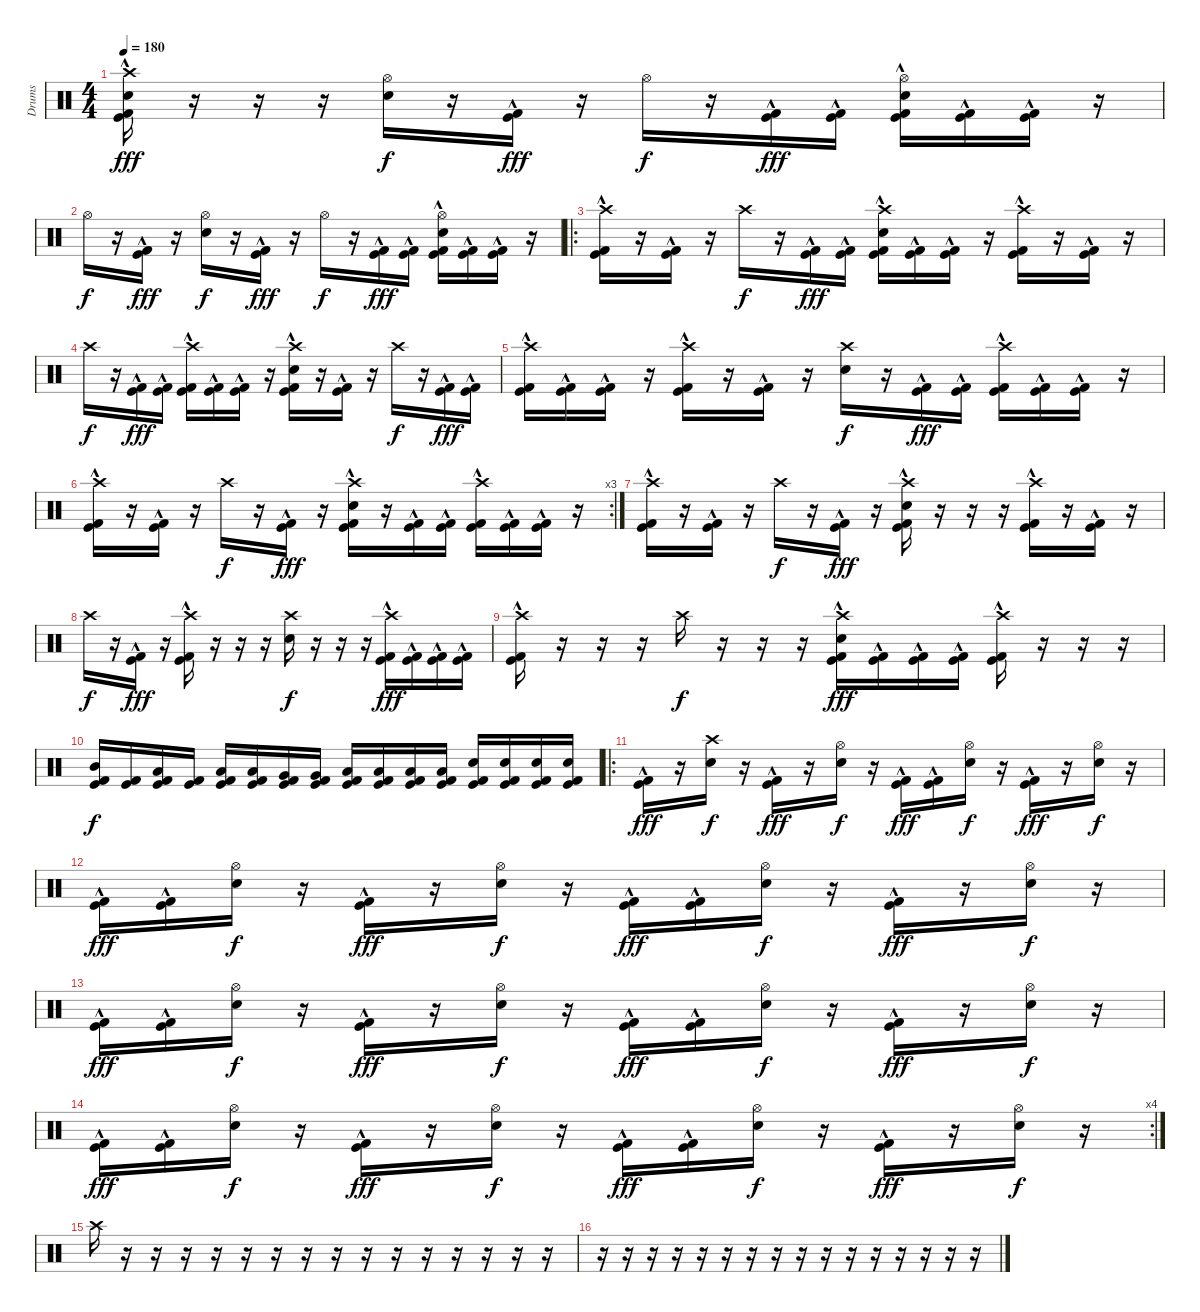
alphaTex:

\track ("Drums" "Drums") {instrument percussion}
\staff {score}
\articulation defaults
\ts (4 4)
\tempo 180
\clef neutral
\ks c
("Crash high (hit)" "Snare (hit) 2" "Kick (hit)"{hac} "Kick (hit) 2"{hac}).16{dy fff} r.16 r.16 r.16 ("Hi-Hat (open)" "Snare (hit) 2").16{dy f} r.16 ("Kick (hit)"{hac} "Kick (hit) 2"{hac}).16{dy fff} r.16 "Hi-Hat (open)".16{dy f} r.16 ("Kick (hit)"{hac} "Kick (hit) 2"{hac}).16{dy fff} ("Kick (hit)"{hac} "Kick (hit) 2"{hac}).16 ("Hi-Hat (open)" "Snare (hit) 2" "Kick (hit)"{hac} "Kick (hit) 2"{hac}).16 ("Kick (hit)"{hac} "Kick (hit) 2"{hac}).16 ("Kick (hit)"{hac} "Kick (hit) 2"{hac}).16 r.16 |
"Hi-Hat (open)".16{dy f} r.16 ("Kick (hit)"{hac} "Kick (hit) 2"{hac}).16{dy fff} r.16 ("Hi-Hat (open)" "Snare (hit) 2").16{dy f} r.16 ("Kick (hit)"{hac} "Kick (hit) 2"{hac}).16{dy fff} r.16 "Hi-Hat (open)".16{dy f} r.16 ("Kick (hit)"{hac} "Kick (hit) 2"{hac}).16{dy fff} ("Kick (hit)"{hac} "Kick (hit) 2"{hac}).16 ("Hi-Hat (open)" "Snare (hit) 2" "Kick (hit)"{hac} "Kick (hit) 2"{hac}).16 ("Kick (hit)"{hac} "Kick (hit) 2"{hac}).16 ("Kick (hit)"{hac} "Kick (hit) 2"{hac}).16 r.16 |
\ro
("Crash high (hit)" "Kick (hit)"{hac} "Kick (hit) 2"{hac}).16 r.16 ("Kick (hit)"{hac} "Kick (hit) 2"{hac}).16 r.16 "Crash high (hit)".16{dy f} r.16 ("Kick (hit)"{hac} "Kick (hit) 2"{hac}).16{dy fff} ("Kick (hit)"{hac} "Kick (hit) 2"{hac}).16 ("Crash high (hit)" "Snare (hit) 2" "Kick (hit)"{hac} "Kick (hit) 2"{hac}).16 ("Kick (hit)"{hac} "Kick (hit) 2"{hac}).16 ("Kick (hit)"{hac} "Kick (hit) 2"{hac}).16 r.16 ("Crash high (hit)" "Kick (hit)"{hac} "Kick (hit) 2"{hac}).16 r.16 ("Kick (hit)"{hac} "Kick (hit) 2"{hac}).16 r.16 |
"Crash high (hit)".16{dy f} r.16 ("Kick (hit)"{hac} "Kick (hit) 2"{hac}).16{dy fff} ("Kick (hit)"{hac} "Kick (hit) 2"{hac}).16 ("Crash high (hit)" "Kick (hit)"{hac} "Kick (hit) 2"{hac}).16 ("Kick (hit)"{hac} "Kick (hit) 2"{hac}).16 ("Kick (hit)"{hac} "Kick (hit) 2"{hac}).16 r.16 ("Crash high (hit)" "Snare (hit) 2" "Kick (hit)"{hac} "Kick (hit) 2"{hac}).16 r.16 ("Kick (hit)"{hac} "Kick (hit) 2"{hac}).16 r.16 "Crash high (hit)".16{dy f} r.16 ("Kick (hit)"{hac} "Kick (hit) 2"{hac}).16{dy fff} ("Kick (hit)"{hac} "Kick (hit) 2"{hac}).16 |
("Crash high (hit)" "Kick (hit)"{hac} "Kick (hit) 2"{hac}).16 ("Kick (hit)"{hac} "Kick (hit) 2"{hac}).16 ("Kick (hit)"{hac} "Kick (hit) 2"{hac}).16 r.16 ("Crash high (hit)" "Kick (hit)"{hac} "Kick (hit) 2"{hac}).16 r.16 ("Kick (hit)"{hac} "Kick (hit) 2"{hac}).16 r.16 ("Crash high (hit)" "Snare (hit) 2").16{dy f} r.16 ("Kick (hit)"{hac} "Kick (hit) 2"{hac}).16{dy fff} ("Kick (hit)"{hac} "Kick (hit) 2"{hac}).16 ("Crash high (hit)" "Kick (hit)"{hac} "Kick (hit) 2"{hac}).16 ("Kick (hit)"{hac} "Kick (hit) 2"{hac}).16 ("Kick (hit)"{hac} "Kick (hit) 2"{hac}).16 r.16 |
\rc 3
("Crash high (hit)" "Kick (hit)"{hac} "Kick (hit) 2"{hac}).16 r.16 ("Kick (hit)"{hac} "Kick (hit) 2"{hac}).16 r.16 "Crash high (hit)".16{dy f} r.16 ("Kick (hit)"{hac} "Kick (hit) 2"{hac}).16{dy fff} r.16 ("Crash high (hit)" "Snare (hit) 2" "Kick (hit)"{hac} "Kick (hit) 2"{hac}).16 r.16 ("Kick (hit)"{hac} "Kick (hit) 2"{hac}).16 ("Kick (hit)"{hac} "Kick (hit) 2"{hac}).16 ("Crash high (hit)" "Kick (hit)"{hac} "Kick (hit) 2"{hac}).16 ("Kick (hit)"{hac} "Kick (hit) 2"{hac}).16 ("Kick (hit)"{hac} "Kick (hit) 2"{hac}).16 r.16 |
("Crash high (hit)" "Kick (hit)"{hac} "Kick (hit) 2"{hac}).16 r.16 ("Kick (hit)"{hac} "Kick (hit) 2"{hac}).16 r.16 "Crash high (hit)".16{dy f} r.16 ("Kick (hit)"{hac} "Kick (hit) 2"{hac}).16{dy fff} r.16 ("Crash high (hit)" "Snare (hit) 2" "Kick (hit)"{hac} "Kick (hit) 2"{hac}).16 r.16 r.16 r.16 ("Crash high (hit)" "Kick (hit)"{hac} "Kick (hit) 2"{hac}).16 r.16 ("Kick (hit)"{hac} "Kick (hit) 2"{hac}).16 r.16 |
"Crash high (hit)".16{dy f} r.16 ("Kick (hit)"{hac} "Kick (hit) 2"{hac}).16{dy fff} r.16 ("Crash high (hit)" "Kick (hit)"{hac} "Kick (hit) 2"{hac}).16 r.16 r.16 r.16 ("Crash high (hit)" "Snare (hit) 2").16{dy f} r.16 r.16 r.16 ("Crash high (hit)" "Kick (hit)"{hac} "Kick (hit) 2"{hac}).16{dy fff} ("Kick (hit)"{hac} "Kick (hit) 2"{hac}).16 ("Kick (hit)"{hac} "Kick (hit) 2"{hac}).16 ("Kick (hit)"{hac} "Kick (hit) 2"{hac}).16 |
("Crash high (hit)" "Kick (hit)"{hac} "Kick (hit) 2"{hac}).16 r.16 r.16 r.16 "Crash high (hit)".16{dy f} r.16 r.16 r.16 ("Crash high (hit)" "Snare (hit) 2" "Kick (hit)"{hac} "Kick (hit) 2"{hac}).16{dy fff} ("Kick (hit)"{hac} "Kick (hit) 2"{hac}).16 ("Kick (hit)"{hac} "Kick (hit) 2"{hac}).16 ("Kick (hit)"{hac} "Kick (hit) 2"{hac}).16 ("Crash high (hit)" "Kick (hit)"{hac} "Kick (hit) 2"{hac}).16 r.16 r.16 r.16 |
("Mid Tom (hit)" "Kick (hit)" "Kick (hit) 2").16{dy f} ("Kick (hit)" "Kick (hit) 2").16 ("Low Tom (hit)" "Kick (hit)" "Kick (hit) 2").16 ("Kick (hit)" "Kick (hit) 2").16 ("Low Tom (hit)" "Kick (hit)" "Kick (hit) 2").16 ("Low Tom (hit)" "Kick (hit)" "Kick (hit) 2").16 ("Very Low Tom (hit)" "Kick (hit)" "Kick (hit) 2").16 ("Very Low Tom (hit)" "Kick (hit)" "Kick (hit) 2").16 ("Low Floor Tom (hit)" "Kick (hit)" "Kick (hit) 2").16 ("Low Floor Tom (hit)" "Kick (hit)" "Kick (hit) 2").16 ("Low Floor Tom (hit)" "Kick (hit)" "Kick (hit) 2").16 ("Low Floor Tom (hit)" "Kick (hit)" "Kick (hit) 2").16 ("Electric Snare (hit)" "Kick (hit)" "Kick (hit) 2").16 ("Electric Snare (hit)" "Kick (hit)" "Kick (hit) 2").16 ("Electric Snare (hit)" "Kick (hit)" "Kick (hit) 2").16 ("Electric Snare (hit)" "Kick (hit)" "Kick (hit) 2").16 |
\ro
("Kick (hit)"{hac} "Kick (hit) 2"{hac}).16{dy fff} r.16 ("Crash high (hit)" "Snare (hit) 2").16{dy f} r.16 ("Kick (hit)"{hac} "Kick (hit) 2"{hac}).16{dy fff} r.16 ("Hi-Hat (open)" "Snare (hit) 2").16{dy f} r.16 ("Kick (hit)"{hac} "Kick (hit) 2"{hac}).16{dy fff} ("Kick (hit)"{hac} "Kick (hit) 2"{hac}).16 ("Hi-Hat (open)" "Snare (hit) 2").16{dy f} r.16 ("Kick (hit)"{hac} "Kick (hit) 2"{hac}).16{dy fff} r.16 ("Hi-Hat (open)" "Snare (hit) 2").16{dy f} r.16 |
("Kick (hit)"{hac} "Kick (hit) 2"{hac}).16{dy fff} ("Kick (hit)"{hac} "Kick (hit) 2"{hac}).16 ("Hi-Hat (open)" "Snare (hit) 2").16{dy f} r.16 ("Kick (hit)"{hac} "Kick (hit) 2"{hac}).16{dy fff} r.16 ("Hi-Hat (open)" "Snare (hit) 2").16{dy f} r.16 ("Kick (hit)"{hac} "Kick (hit) 2"{hac}).16{dy fff} ("Kick (hit)"{hac} "Kick (hit) 2"{hac}).16 ("Hi-Hat (open)" "Snare (hit) 2").16{dy f} r.16 ("Kick (hit)"{hac} "Kick (hit) 2"{hac}).16{dy fff} r.16 ("Hi-Hat (open)" "Snare (hit) 2").16{dy f} r.16 |
("Kick (hit)"{hac} "Kick (hit) 2"{hac}).16{dy fff} ("Kick (hit)"{hac} "Kick (hit) 2"{hac}).16 ("Hi-Hat (open)" "Snare (hit) 2").16{dy f} r.16 ("Kick (hit)"{hac} "Kick (hit) 2"{hac}).16{dy fff} r.16 ("Hi-Hat (open)" "Snare (hit) 2").16{dy f} r.16 ("Kick (hit)"{hac} "Kick (hit) 2"{hac}).16{dy fff} ("Kick (hit)"{hac} "Kick (hit) 2"{hac}).16 ("Hi-Hat (open)" "Snare (hit) 2").16{dy f} r.16 ("Kick (hit)"{hac} "Kick (hit) 2"{hac}).16{dy fff} r.16 ("Hi-Hat (open)" "Snare (hit) 2").16{dy f} r.16 |
\rc 4
("Kick (hit)"{hac} "Kick (hit) 2"{hac}).16{dy fff} ("Kick (hit)"{hac} "Kick (hit) 2"{hac}).16 ("Hi-Hat (open)" "Snare (hit) 2").16{dy f} r.16 ("Kick (hit)"{hac} "Kick (hit) 2"{hac}).16{dy fff} r.16 ("Hi-Hat (open)" "Snare (hit) 2").16{dy f} r.16 ("Kick (hit)"{hac} "Kick (hit) 2"{hac}).16{dy fff} ("Kick (hit)"{hac} "Kick (hit) 2"{hac}).16 ("Hi-Hat (open)" "Snare (hit) 2").16{dy f} r.16 ("Kick (hit)"{hac} "Kick (hit) 2"{hac}).16{dy fff} r.16 ("Hi-Hat (open)" "Snare (hit) 2").16{dy f} r.16 |
"Crash high (hit)".16 r.16 r.16 r.16 r.16 r.16 r.16 r.16 r.16 r.16 r.16 r.16 r.16 r.16 r.16 r.16 |
r.16 r.16 r.16 r.16 r.16 r.16 r.16 r.16 r.16 r.16 r.16 r.16 r.16 r.16 r.16 r.16
